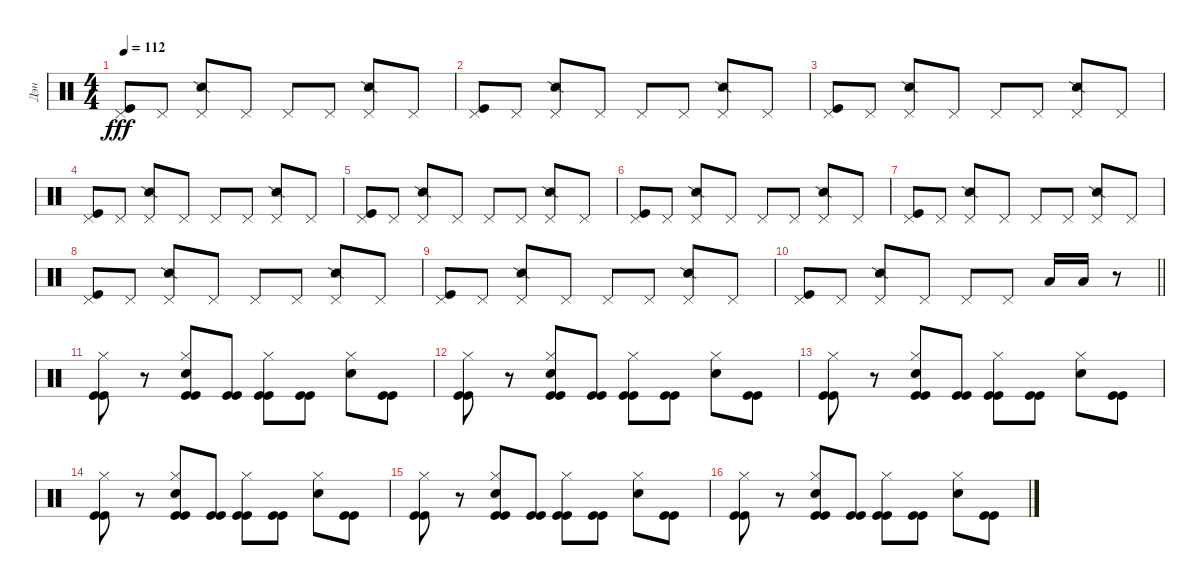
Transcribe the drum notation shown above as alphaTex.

\track ("Дэн" "Дэн") {instrument percussion}
\staff {score}
\articulation defaults
\ts (4 4)
\tempo 112
\clef neutral
\ks c
("Pedal Hi-Hat (hit)" "Kick (hit)").8{dy fff} "Pedal Hi-Hat (hit)".8 ("Pedal Hi-Hat (hit)" "Snare (side stick) 2").8 "Pedal Hi-Hat (hit)".8 "Pedal Hi-Hat (hit)".8 "Pedal Hi-Hat (hit)".8 ("Pedal Hi-Hat (hit)" "Snare (side stick) 2").8 "Pedal Hi-Hat (hit)".8 |
("Pedal Hi-Hat (hit)" "Kick (hit)").8 "Pedal Hi-Hat (hit)".8 ("Pedal Hi-Hat (hit)" "Snare (side stick) 2").8 "Pedal Hi-Hat (hit)".8 "Pedal Hi-Hat (hit)".8 "Pedal Hi-Hat (hit)".8 ("Pedal Hi-Hat (hit)" "Snare (side stick) 2").8 "Pedal Hi-Hat (hit)".8 |
("Pedal Hi-Hat (hit)" "Kick (hit)").8 "Pedal Hi-Hat (hit)".8 ("Pedal Hi-Hat (hit)" "Snare (side stick) 2").8 "Pedal Hi-Hat (hit)".8 "Pedal Hi-Hat (hit)".8 "Pedal Hi-Hat (hit)".8 ("Pedal Hi-Hat (hit)" "Snare (side stick) 2").8 "Pedal Hi-Hat (hit)".8 |
("Pedal Hi-Hat (hit)" "Kick (hit)").8 "Pedal Hi-Hat (hit)".8 ("Pedal Hi-Hat (hit)" "Snare (side stick) 2").8 "Pedal Hi-Hat (hit)".8 "Pedal Hi-Hat (hit)".8 "Pedal Hi-Hat (hit)".8 ("Pedal Hi-Hat (hit)" "Snare (side stick) 2").8 "Pedal Hi-Hat (hit)".8 |
("Pedal Hi-Hat (hit)" "Kick (hit)").8 "Pedal Hi-Hat (hit)".8 ("Pedal Hi-Hat (hit)" "Snare (side stick) 2").8 "Pedal Hi-Hat (hit)".8 "Pedal Hi-Hat (hit)".8 "Pedal Hi-Hat (hit)".8 ("Pedal Hi-Hat (hit)" "Snare (side stick) 2").8 "Pedal Hi-Hat (hit)".8 |
("Pedal Hi-Hat (hit)" "Kick (hit)").8 "Pedal Hi-Hat (hit)".8 ("Pedal Hi-Hat (hit)" "Snare (side stick) 2").8 "Pedal Hi-Hat (hit)".8 "Pedal Hi-Hat (hit)".8 "Pedal Hi-Hat (hit)".8 ("Pedal Hi-Hat (hit)" "Snare (side stick) 2").8 "Pedal Hi-Hat (hit)".8 |
("Pedal Hi-Hat (hit)" "Kick (hit)").8 "Pedal Hi-Hat (hit)".8 ("Pedal Hi-Hat (hit)" "Snare (side stick) 2").8 "Pedal Hi-Hat (hit)".8 "Pedal Hi-Hat (hit)".8 "Pedal Hi-Hat (hit)".8 ("Pedal Hi-Hat (hit)" "Snare (side stick) 2").8 "Pedal Hi-Hat (hit)".8 |
("Pedal Hi-Hat (hit)" "Kick (hit)").8 "Pedal Hi-Hat (hit)".8 ("Pedal Hi-Hat (hit)" "Snare (side stick) 2").8 "Pedal Hi-Hat (hit)".8 "Pedal Hi-Hat (hit)".8 "Pedal Hi-Hat (hit)".8 ("Pedal Hi-Hat (hit)" "Snare (side stick) 2").8 "Pedal Hi-Hat (hit)".8 |
("Pedal Hi-Hat (hit)" "Kick (hit)").8 "Pedal Hi-Hat (hit)".8 ("Pedal Hi-Hat (hit)" "Snare (side stick) 2").8 "Pedal Hi-Hat (hit)".8 "Pedal Hi-Hat (hit)".8 "Pedal Hi-Hat (hit)".8 ("Pedal Hi-Hat (hit)" "Snare (side stick) 2").8 "Pedal Hi-Hat (hit)".8 |
\barLineRight lightlight
("Pedal Hi-Hat (hit)" "Kick (hit)").8 "Pedal Hi-Hat (hit)".8 ("Pedal Hi-Hat (hit)" "Snare (side stick) 2").8 "Pedal Hi-Hat (hit)".8 "Pedal Hi-Hat (hit)".8 "Pedal Hi-Hat (hit)".8 "Low Tom (hit)".16 "Low Tom (hit)".16 r.8 |
("Hi-Hat (closed)" "Kick (hit)" "Kick (hit)").8 r.8 ("Hi-Hat (closed)" "Kick (hit)" "Kick (hit)" "Electric Snare (hit)").8 ("Kick (hit)" "Kick (hit)").8 ("Hi-Hat (closed)" "Kick (hit)" "Kick (hit)").8 ("Kick (hit)" "Kick (hit)").8 ("Hi-Hat (closed)" "Electric Snare (hit)").8 ("Kick (hit)" "Kick (hit)").8 |
("Hi-Hat (closed)" "Kick (hit)" "Kick (hit)").8 r.8 ("Hi-Hat (closed)" "Kick (hit)" "Kick (hit)" "Electric Snare (hit)").8 ("Kick (hit)" "Kick (hit)").8 ("Hi-Hat (closed)" "Kick (hit)" "Kick (hit)").8 ("Kick (hit)" "Kick (hit)").8 ("Hi-Hat (closed)" "Electric Snare (hit)").8 ("Kick (hit)" "Kick (hit)").8 |
("Hi-Hat (closed)" "Kick (hit)" "Kick (hit)").8 r.8 ("Hi-Hat (closed)" "Kick (hit)" "Kick (hit)" "Electric Snare (hit)").8 ("Kick (hit)" "Kick (hit)").8 ("Hi-Hat (closed)" "Kick (hit)" "Kick (hit)").8 ("Kick (hit)" "Kick (hit)").8 ("Hi-Hat (closed)" "Electric Snare (hit)").8 ("Kick (hit)" "Kick (hit)").8 |
("Hi-Hat (closed)" "Kick (hit)" "Kick (hit)").8 r.8 ("Hi-Hat (closed)" "Kick (hit)" "Kick (hit)" "Electric Snare (hit)").8 ("Kick (hit)" "Kick (hit)").8 ("Hi-Hat (closed)" "Kick (hit)" "Kick (hit)").8 ("Kick (hit)" "Kick (hit)").8 ("Hi-Hat (closed)" "Electric Snare (hit)").8 ("Kick (hit)" "Kick (hit)").8 |
("Hi-Hat (closed)" "Kick (hit)" "Kick (hit)").8 r.8 ("Hi-Hat (closed)" "Kick (hit)" "Kick (hit)" "Electric Snare (hit)").8 ("Kick (hit)" "Kick (hit)").8 ("Hi-Hat (closed)" "Kick (hit)" "Kick (hit)").8 ("Kick (hit)" "Kick (hit)").8 ("Hi-Hat (closed)" "Electric Snare (hit)").8 ("Kick (hit)" "Kick (hit)").8 |
("Hi-Hat (closed)" "Kick (hit)" "Kick (hit)").8 r.8 ("Hi-Hat (closed)" "Kick (hit)" "Kick (hit)" "Electric Snare (hit)").8 ("Kick (hit)" "Kick (hit)").8 ("Hi-Hat (closed)" "Kick (hit)" "Kick (hit)").8 ("Kick (hit)" "Kick (hit)").8 ("Hi-Hat (closed)" "Electric Snare (hit)").8 ("Kick (hit)" "Kick (hit)").8
